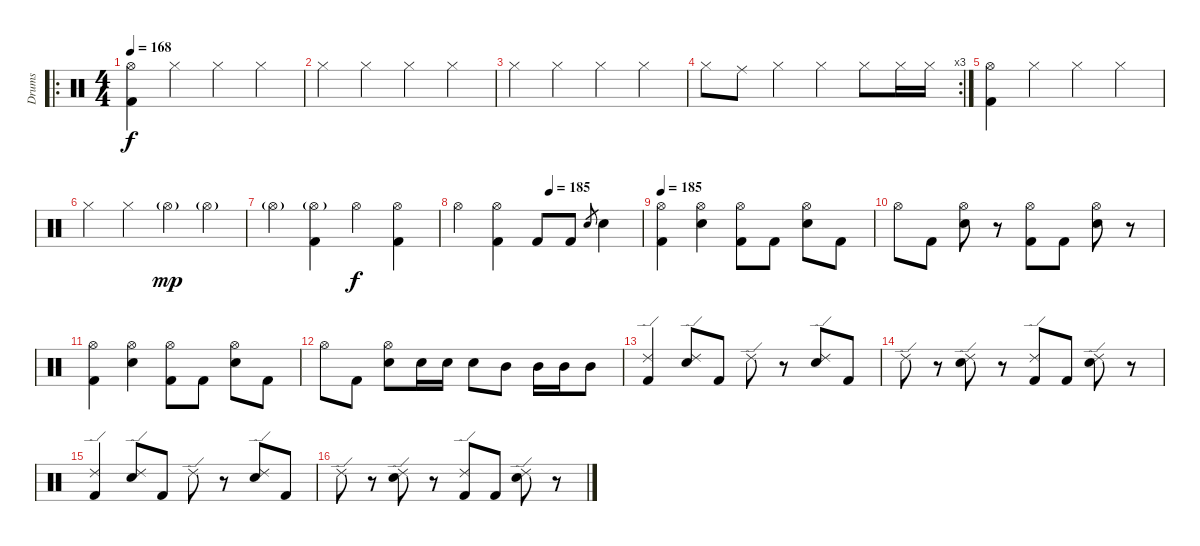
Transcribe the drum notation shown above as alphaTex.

\track ("Drums" "Drums") {instrument percussion}
\staff {score}
\articulation defaults
\ro
\ts (4 4)
\tempo 168
\clef neutral
\ks c
("Hi-Hat (open)" "Kick (hit) 2").4{dy f} "Hi-Hat (closed)".4 "Hi-Hat (closed)".4 "Hi-Hat (closed)".4 |
"Hi-Hat (closed)".4 "Hi-Hat (closed)".4 "Hi-Hat (closed)".4 "Hi-Hat (closed)".4 |
"Hi-Hat (closed)".4 "Hi-Hat (closed)".4 "Hi-Hat (closed)".4 "Hi-Hat (closed)".4 |
\rc 3 "Hi-Hat (closed)".8 "Ride (middle)".8 "Hi-Hat (closed)".4 "Hi-Hat (closed)".4 "Hi-Hat (closed)".8 "Hi-Hat (closed)".16 "Hi-Hat (closed)".16
|
("Hi-Hat (open)" "Kick (hit) 2").4 "Hi-Hat (closed)".4 "Hi-Hat (closed)".4 "Hi-Hat (closed)".4 |
"Hi-Hat (closed)".4 "Hi-Hat (closed)".4 "Hi-Hat (open)"{g}.4{dy mp} "Hi-Hat (open)"{g}.4 |
"Hi-Hat (open)"{g}.4 ("Hi-Hat (open)"{g} "Kick (hit) 2").4 "Hi-Hat (open)".4{dy f} ("Hi-Hat (open)" "Kick (hit) 2").4 |
\tempo (185 0.5)
"Hi-Hat (open)".4 ("Hi-Hat (open)" "Kick (hit) 2").4 "Kick (hit) 2".8 "Kick (hit) 2".8 "Snare (hit) 2".8{gr} "Snare (hit) 2".4 |
\tempo 185
("Hi-Hat (open)" "Kick (hit) 2").4 ("Hi-Hat (open)" "Snare (hit) 2").4 ("Hi-Hat (open)" "Kick (hit) 2").8 "Kick (hit) 2".8 ("Hi-Hat (open)" "Snare (hit) 2").8 "Kick (hit) 2".8 |
"Hi-Hat (open)".8 "Kick (hit) 2".8 ("Hi-Hat (open)" "Snare (hit) 2").8 r.8 ("Hi-Hat (open)" "Kick (hit) 2").8 "Kick (hit) 2".8 ("Hi-Hat (open)" "Snare (hit) 2").8 r.8 |
("Hi-Hat (open)" "Kick (hit) 2").4 ("Hi-Hat (open)" "Snare (hit) 2").4 ("Hi-Hat (open)" "Kick (hit) 2").8 "Kick (hit) 2".8 ("Hi-Hat (open)" "Snare (hit) 2").8 "Kick (hit) 2".8 |
"Hi-Hat (open)".8 "Kick (hit) 2".8 ("Hi-Hat (open)" "Snare (hit) 2").8 "Snare (hit) 2".16 "Snare (hit) 2".16 "Snare (hit) 2".8 "Mid Tom (hit)".8 "Mid Tom (hit)".16 "Mid Tom (hit)".16 "Mid Tom (hit)".8 |
("Ride (edge) 2" "Kick (hit) 2").4 ("Ride (edge) 2" "Snare (hit) 2").8 "Kick (hit) 2".8 "Ride (edge) 2".8 r.8 ("Ride (edge) 2" "Snare (hit) 2").8 "Kick (hit) 2".8 |
"Ride (edge) 2".8 r.8 ("Ride (edge) 2" "Snare (hit) 2").8 r.8 ("Ride (edge) 2" "Kick (hit) 2").8 "Kick (hit) 2".8 ("Ride (edge) 2" "Snare (hit) 2").8 r.8 |
("Ride (edge) 2" "Kick (hit) 2").4 ("Ride (edge) 2" "Snare (hit) 2").8 "Kick (hit) 2".8 "Ride (edge) 2".8 r.8 ("Ride (edge) 2" "Snare (hit) 2").8 "Kick (hit) 2".8 |
"Ride (edge) 2".8 r.8 ("Ride (edge) 2" "Snare (hit) 2").8 r.8 ("Ride (edge) 2" "Kick (hit) 2").8 "Kick (hit) 2".8 ("Ride (edge) 2" "Snare (hit) 2").8 r.8
